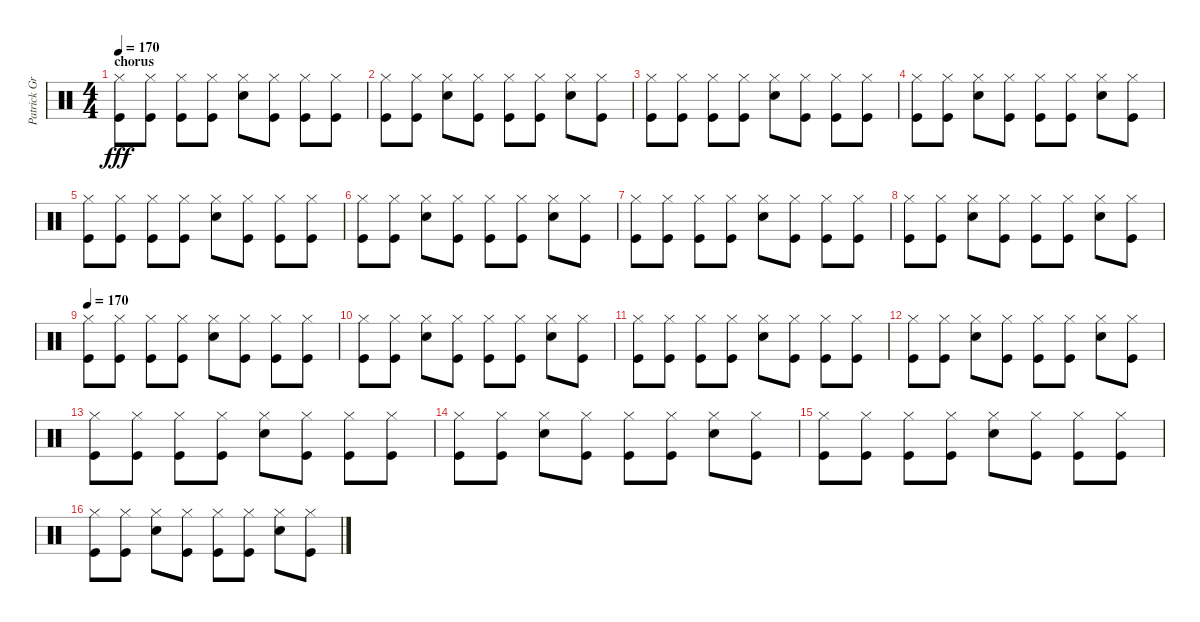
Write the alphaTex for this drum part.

\track ("Patrick Grün - Drums" "Patrick Gr") {instrument percussion}
\staff {score}
\articulation defaults
\ts (4 4)
\section ("" "chorus")
\tempo 170
\clef neutral
\ks c
("Kick (hit)" "Hi-Hat (closed)").8{dy fff} ("Kick (hit)" "Hi-Hat (closed)").8 ("Kick (hit)" "Hi-Hat (closed)").8 ("Kick (hit)" "Hi-Hat (closed)").8 ("Snare (hit) 2" "Hi-Hat (closed)").8 ("Kick (hit)" "Hi-Hat (closed)").8 ("Kick (hit)" "Hi-Hat (closed)").8 ("Kick (hit)" "Hi-Hat (closed)").8 |
("Kick (hit)" "Hi-Hat (closed)").8 ("Kick (hit)" "Hi-Hat (closed)").8 ("Snare (hit) 2" "Hi-Hat (closed)").8 ("Kick (hit)" "Hi-Hat (closed)").8 ("Kick (hit)" "Hi-Hat (closed)").8 ("Kick (hit)" "Hi-Hat (closed)").8 ("Snare (hit) 2" "Hi-Hat (closed)").8 ("Kick (hit)" "Hi-Hat (closed)").8 |
("Kick (hit)" "Hi-Hat (closed)").8 ("Kick (hit)" "Hi-Hat (closed)").8 ("Kick (hit)" "Hi-Hat (closed)").8 ("Kick (hit)" "Hi-Hat (closed)").8 ("Snare (hit) 2" "Hi-Hat (closed)").8 ("Kick (hit)" "Hi-Hat (closed)").8 ("Kick (hit)" "Hi-Hat (closed)").8 ("Kick (hit)" "Hi-Hat (closed)").8 |
("Kick (hit)" "Hi-Hat (closed)").8 ("Kick (hit)" "Hi-Hat (closed)").8 ("Snare (hit) 2" "Hi-Hat (closed)").8 ("Kick (hit)" "Hi-Hat (closed)").8 ("Kick (hit)" "Hi-Hat (closed)").8 ("Kick (hit)" "Hi-Hat (closed)").8 ("Snare (hit) 2" "Hi-Hat (closed)").8 ("Kick (hit)" "Hi-Hat (closed)").8 |
("Kick (hit)" "Hi-Hat (closed)").8 ("Kick (hit)" "Hi-Hat (closed)").8 ("Kick (hit)" "Hi-Hat (closed)").8 ("Kick (hit)" "Hi-Hat (closed)").8 ("Snare (hit) 2" "Hi-Hat (closed)").8 ("Kick (hit)" "Hi-Hat (closed)").8 ("Kick (hit)" "Hi-Hat (closed)").8 ("Kick (hit)" "Hi-Hat (closed)").8 |
("Kick (hit)" "Hi-Hat (closed)").8 ("Kick (hit)" "Hi-Hat (closed)").8 ("Snare (hit) 2" "Hi-Hat (closed)").8 ("Kick (hit)" "Hi-Hat (closed)").8 ("Kick (hit)" "Hi-Hat (closed)").8 ("Kick (hit)" "Hi-Hat (closed)").8 ("Snare (hit) 2" "Hi-Hat (closed)").8 ("Kick (hit)" "Hi-Hat (closed)").8 |
("Kick (hit)" "Hi-Hat (closed)").8 ("Kick (hit)" "Hi-Hat (closed)").8 ("Kick (hit)" "Hi-Hat (closed)").8 ("Kick (hit)" "Hi-Hat (closed)").8 ("Snare (hit) 2" "Hi-Hat (closed)").8 ("Kick (hit)" "Hi-Hat (closed)").8 ("Kick (hit)" "Hi-Hat (closed)").8 ("Kick (hit)" "Hi-Hat (closed)").8 |
("Kick (hit)" "Hi-Hat (closed)").8 ("Kick (hit)" "Hi-Hat (closed)").8 ("Snare (hit) 2" "Hi-Hat (closed)").8 ("Kick (hit)" "Hi-Hat (closed)").8 ("Kick (hit)" "Hi-Hat (closed)").8 ("Kick (hit)" "Hi-Hat (closed)").8 ("Snare (hit) 2" "Hi-Hat (closed)").8 ("Kick (hit)" "Hi-Hat (closed)").8 |
\tempo 170
("Kick (hit)" "Hi-Hat (closed)").8 ("Kick (hit)" "Hi-Hat (closed)").8 ("Kick (hit)" "Hi-Hat (closed)").8 ("Kick (hit)" "Hi-Hat (closed)").8 ("Snare (hit) 2" "Hi-Hat (closed)").8 ("Kick (hit)" "Hi-Hat (closed)").8 ("Kick (hit)" "Hi-Hat (closed)").8 ("Kick (hit)" "Hi-Hat (closed)").8 |
("Kick (hit)" "Hi-Hat (closed)").8 ("Kick (hit)" "Hi-Hat (closed)").8 ("Snare (hit) 2" "Hi-Hat (closed)").8 ("Kick (hit)" "Hi-Hat (closed)").8 ("Kick (hit)" "Hi-Hat (closed)").8 ("Kick (hit)" "Hi-Hat (closed)").8 ("Snare (hit) 2" "Hi-Hat (closed)").8 ("Kick (hit)" "Hi-Hat (closed)").8 |
("Kick (hit)" "Hi-Hat (closed)").8 ("Kick (hit)" "Hi-Hat (closed)").8 ("Kick (hit)" "Hi-Hat (closed)").8 ("Kick (hit)" "Hi-Hat (closed)").8 ("Snare (hit) 2" "Hi-Hat (closed)").8 ("Kick (hit)" "Hi-Hat (closed)").8 ("Kick (hit)" "Hi-Hat (closed)").8 ("Kick (hit)" "Hi-Hat (closed)").8 |
("Kick (hit)" "Hi-Hat (closed)").8 ("Kick (hit)" "Hi-Hat (closed)").8 ("Snare (hit) 2" "Hi-Hat (closed)").8 ("Kick (hit)" "Hi-Hat (closed)").8 ("Kick (hit)" "Hi-Hat (closed)").8 ("Kick (hit)" "Hi-Hat (closed)").8 ("Snare (hit) 2" "Hi-Hat (closed)").8 ("Kick (hit)" "Hi-Hat (closed)").8 |
("Kick (hit)" "Hi-Hat (closed)").8 ("Kick (hit)" "Hi-Hat (closed)").8 ("Kick (hit)" "Hi-Hat (closed)").8 ("Kick (hit)" "Hi-Hat (closed)").8 ("Snare (hit) 2" "Hi-Hat (closed)").8 ("Kick (hit)" "Hi-Hat (closed)").8 ("Kick (hit)" "Hi-Hat (closed)").8 ("Kick (hit)" "Hi-Hat (closed)").8 |
("Kick (hit)" "Hi-Hat (closed)").8 ("Kick (hit)" "Hi-Hat (closed)").8 ("Snare (hit) 2" "Hi-Hat (closed)").8 ("Kick (hit)" "Hi-Hat (closed)").8 ("Kick (hit)" "Hi-Hat (closed)").8 ("Kick (hit)" "Hi-Hat (closed)").8 ("Snare (hit) 2" "Hi-Hat (closed)").8 ("Kick (hit)" "Hi-Hat (closed)").8 |
("Kick (hit)" "Hi-Hat (closed)").8 ("Kick (hit)" "Hi-Hat (closed)").8 ("Kick (hit)" "Hi-Hat (closed)").8 ("Kick (hit)" "Hi-Hat (closed)").8 ("Snare (hit) 2" "Hi-Hat (closed)").8 ("Kick (hit)" "Hi-Hat (closed)").8 ("Kick (hit)" "Hi-Hat (closed)").8 ("Kick (hit)" "Hi-Hat (closed)").8 |
("Kick (hit)" "Hi-Hat (closed)").8 ("Kick (hit)" "Hi-Hat (closed)").8 ("Snare (hit) 2" "Hi-Hat (closed)").8 ("Kick (hit)" "Hi-Hat (closed)").8 ("Kick (hit)" "Hi-Hat (closed)").8 ("Kick (hit)" "Hi-Hat (closed)").8 ("Snare (hit) 2" "Hi-Hat (closed)").8 ("Kick (hit)" "Hi-Hat (closed)").8
